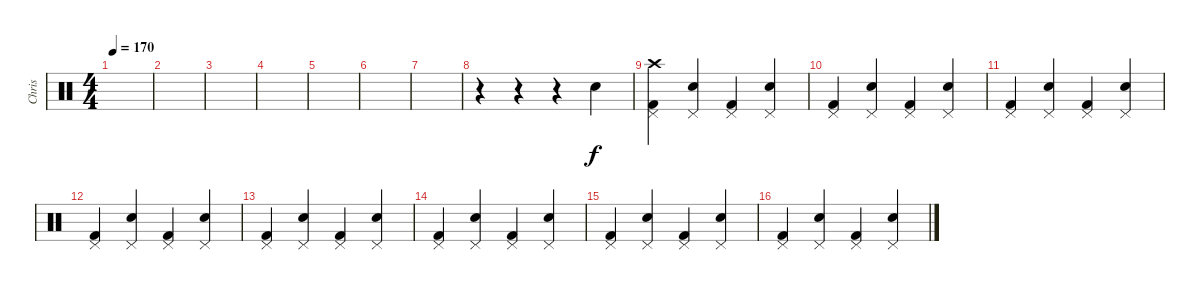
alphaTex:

\track ("Chris" "Chris") {instrument percussion}
\staff {score}
\articulation defaults
\ts (4 4)
\tempo 170
\clef neutral
\ks c
|
|
|
|
|
|
|
r.4 r.4 r.4 "Electric Snare (hit)".4 |
("Pedal Hi-Hat (hit)" "Kick (hit) 2" "Crash high (hit)").4 ("Pedal Hi-Hat (hit)" "Electric Snare (hit)").4 ("Pedal Hi-Hat (hit)" "Kick (hit) 2").4 ("Pedal Hi-Hat (hit)" "Electric Snare (hit)").4 |
("Pedal Hi-Hat (hit)" "Kick (hit) 2").4 ("Pedal Hi-Hat (hit)" "Electric Snare (hit)").4 ("Pedal Hi-Hat (hit)" "Kick (hit) 2").4 ("Pedal Hi-Hat (hit)" "Electric Snare (hit)").4 |
("Pedal Hi-Hat (hit)" "Kick (hit) 2").4 ("Pedal Hi-Hat (hit)" "Electric Snare (hit)").4 ("Pedal Hi-Hat (hit)" "Kick (hit) 2").4 ("Pedal Hi-Hat (hit)" "Electric Snare (hit)").4 |
("Pedal Hi-Hat (hit)" "Kick (hit) 2").4 ("Pedal Hi-Hat (hit)" "Electric Snare (hit)").4 ("Pedal Hi-Hat (hit)" "Kick (hit) 2").4 ("Pedal Hi-Hat (hit)" "Electric Snare (hit)").4 |
("Pedal Hi-Hat (hit)" "Kick (hit) 2").4 ("Pedal Hi-Hat (hit)" "Electric Snare (hit)").4 ("Pedal Hi-Hat (hit)" "Kick (hit) 2").4 ("Pedal Hi-Hat (hit)" "Electric Snare (hit)").4 |
("Pedal Hi-Hat (hit)" "Kick (hit) 2").4 ("Pedal Hi-Hat (hit)" "Electric Snare (hit)").4 ("Pedal Hi-Hat (hit)" "Kick (hit) 2").4 ("Pedal Hi-Hat (hit)" "Electric Snare (hit)").4 |
("Pedal Hi-Hat (hit)" "Kick (hit) 2").4 ("Pedal Hi-Hat (hit)" "Electric Snare (hit)").4 ("Pedal Hi-Hat (hit)" "Kick (hit) 2").4 ("Pedal Hi-Hat (hit)" "Electric Snare (hit)").4 |
("Pedal Hi-Hat (hit)" "Kick (hit) 2").4 ("Pedal Hi-Hat (hit)" "Electric Snare (hit)").4 ("Pedal Hi-Hat (hit)" "Kick (hit) 2").4 ("Pedal Hi-Hat (hit)" "Electric Snare (hit)").4
